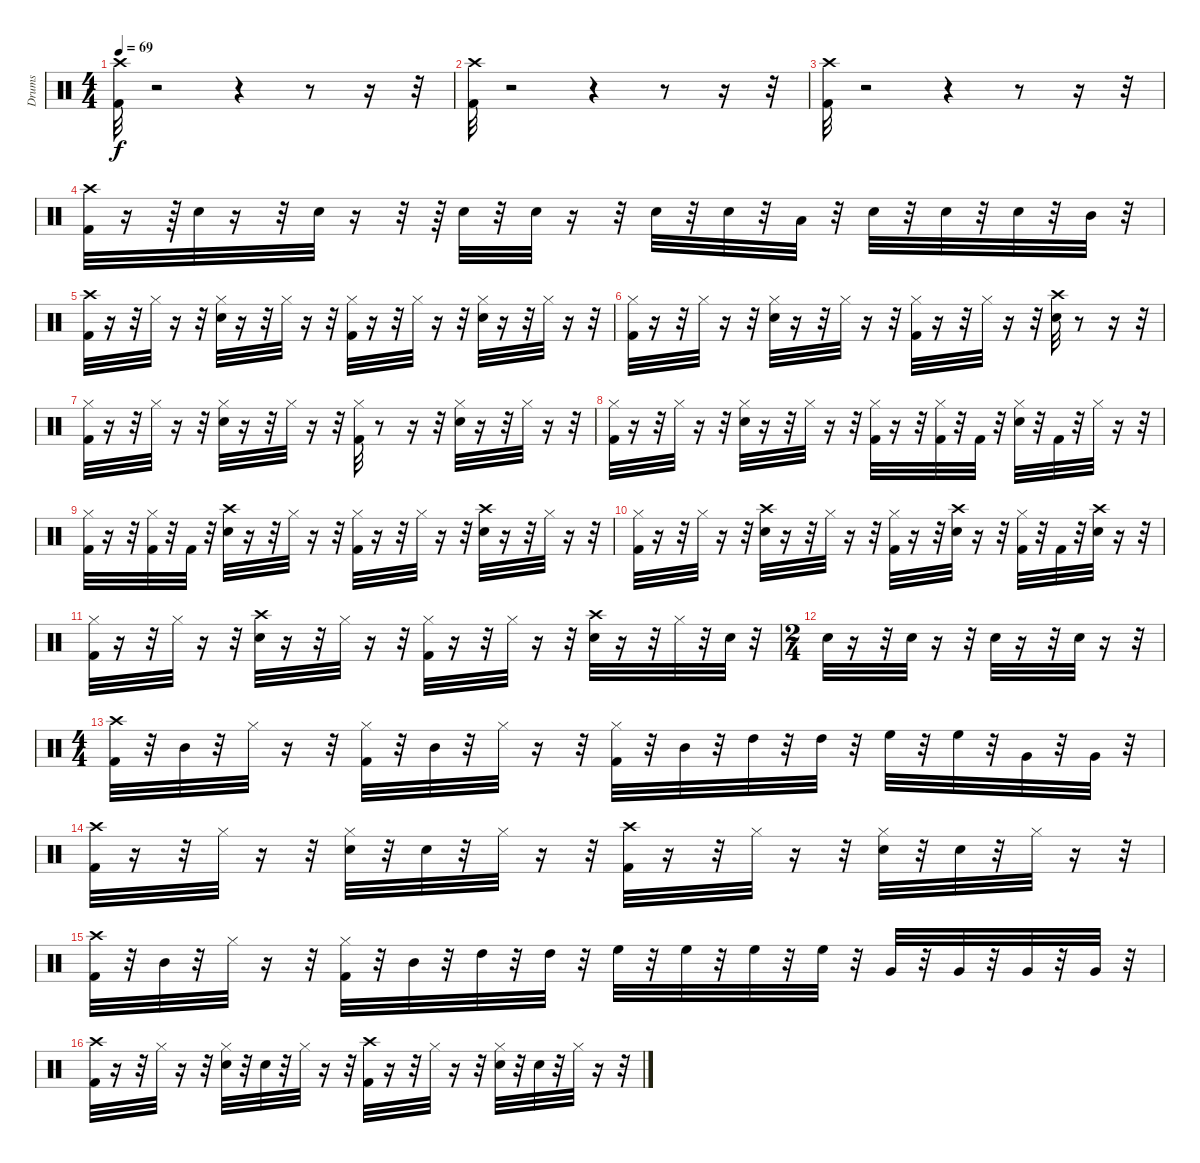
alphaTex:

\track ("Drums" "Drums") {instrument percussion}
\staff {score}
\articulation defaults
\ts (4 4)
\tempo 69
\clef neutral
\ks c
("Kick (hit) 2" "Crash high (hit)").32{dy f} r.2 r.4 r.8 r.16 r.32 |
("Kick (hit) 2" "Crash high (hit)").32 r.2 r.4 r.8 r.16 r.32 |
("Kick (hit) 2" "Crash high (hit)").32 r.2 r.4 r.8 r.16 r.32 |
("Kick (hit) 2" "Crash high (hit)").32 r.16 r.64 "Snare (hit) 2".32 r.16 r.32 "Snare (hit) 2".32 r.16 r.32 r.64 "Snare (hit) 2".32 r.32 "Snare (hit) 2".32 r.16 r.32 "Snare (hit) 2".32 r.32 "Snare (hit) 2".32 r.32 "Low Tom (hit)".32 r.32 "Snare (hit) 2".32 r.32 "Snare (hit) 2".32 r.32 "Snare (hit) 2".32 r.32 "Mid Tom (hit)".32 r.32 |
("Kick (hit) 2" "Crash high (hit)").32 r.16 r.32 "Hi-Hat (closed)".32 r.16 r.32 ("Snare (hit) 2" "Hi-Hat (closed)").32 r.16 r.32 "Hi-Hat (closed)".32 r.16 r.32 ("Hi-Hat (closed)" "Kick (hit) 2").32 r.16 r.32 "Hi-Hat (closed)".32 r.16 r.32 ("Snare (hit) 2" "Hi-Hat (closed)").32 r.16 r.32 "Hi-Hat (closed)".32 r.16 r.32 |
("Kick (hit) 2" "Hi-Hat (closed)").32 r.16 r.32 "Hi-Hat (closed)".32 r.16 r.32 ("Snare (hit) 2" "Hi-Hat (closed)").32 r.16 r.32 "Hi-Hat (closed)".32 r.16 r.32 ("Hi-Hat (closed)" "Kick (hit) 2").32 r.16 r.32 "Hi-Hat (closed)".32 r.16 r.32 ("Crash high (hit)" "Snare (hit) 2").32 r.8 r.16 r.32 |
("Kick (hit) 2" "Hi-Hat (closed)").32 r.16 r.32 "Hi-Hat (closed)".32 r.16 r.32 ("Snare (hit) 2" "Hi-Hat (closed)").32 r.16 r.32 "Hi-Hat (closed)".32 r.16 r.32 ("Kick (hit) 2" "Hi-Hat (closed)").32 r.8 r.16 r.32 ("Snare (hit) 2" "Hi-Hat (closed)").32 r.16 r.32 "Hi-Hat (closed)".32 r.16 r.32 |
("Hi-Hat (closed)" "Kick (hit) 2").32 r.16 r.32 "Hi-Hat (closed)".32 r.16 r.32 ("Snare (hit) 2" "Hi-Hat (closed)").32 r.16 r.32 "Hi-Hat (closed)".32 r.16 r.32 ("Hi-Hat (closed)" "Kick (hit) 2").32 r.16 r.32 ("Hi-Hat (closed)" "Kick (hit) 2").32 r.32 "Kick (hit) 2".32 r.32 ("Snare (hit) 2" "Hi-Hat (closed)").32 r.32 "Kick (hit) 2".32 r.32 "Hi-Hat (closed)".32 r.16 r.32 |
("Kick (hit) 2" "Hi-Hat (closed)").32 r.16 r.32 ("Kick (hit) 2" "Hi-Hat (closed)").32 r.32 "Kick (hit) 2".32 r.32 ("Crash high (hit)" "Snare (hit) 2").32 r.16 r.32 "Hi-Hat (closed)".32 r.16 r.32 ("Hi-Hat (closed)" "Kick (hit) 2").32 r.16 r.32 "Hi-Hat (closed)".32 r.16 r.32 ("Crash high (hit)" "Snare (hit) 2").32 r.16 r.32 "Hi-Hat (closed)".32 r.16 r.32 |
("Kick (hit) 2" "Hi-Hat (closed)").32 r.16 r.32 "Hi-Hat (closed)".32 r.16 r.32 ("Crash high (hit)" "Snare (hit) 2").32 r.16 r.32 "Hi-Hat (closed)".32 r.16 r.32 ("Hi-Hat (closed)" "Kick (hit) 2").32 r.16 r.32 ("Crash high (hit)" "Snare (hit) 2").32 r.16 r.32 ("Hi-Hat (closed)" "Kick (hit) 2").32 r.32 "Kick (hit) 2".32 r.32 ("Crash high (hit)" "Snare (hit) 2").32 r.16 r.32 |
("Kick (hit) 2" "Hi-Hat (closed)").32 r.16 r.32 "Hi-Hat (closed)".32 r.16 r.32 ("Crash high (hit)" "Snare (hit) 2").32 r.16 r.32 "Hi-Hat (closed)".32 r.16 r.32 ("Hi-Hat (closed)" "Kick (hit) 2").32 r.16 r.32 "Hi-Hat (closed)".32 r.16 r.32 ("Crash high (hit)" "Snare (hit) 2").32 r.16 r.32 "Hi-Hat (closed)".32 r.32 "Snare (hit) 2".32 r.32 |
\ts (2 4)
"Snare (hit) 2".32 r.16 r.32 "Snare (hit) 2".32 r.16 r.32 "Snare (hit) 2".32 r.16 r.32 "Snare (hit) 2".32 r.16 r.32 |
\ts (4 4)
("Crash high (hit)" "Kick (hit) 2").32 r.32 "Mid Tom (hit)".32 r.32 "Hi-Hat (closed)".32 r.16 r.32 ("Hi-Hat (closed)" "Kick (hit) 2").32 r.32 "Mid Tom (hit)".32 r.32 "Hi-Hat (closed)".32 r.16 r.32 ("Hi-Hat (closed)" "Kick (hit) 2").32 r.32 "Mid Tom (hit)".32 r.32 "High Tom (hit)".32 r.32 "High Tom (hit)".32 r.32 "High Floor Tom (hit)".32 r.32 "High Floor Tom (hit)".32 r.32 "Very Low Tom (hit)".32 r.32 "Very Low Tom (hit)".32 r.32 |
("Kick (hit) 2" "Crash high (hit)").32 r.16 r.32 "Hi-Hat (closed)".32 r.16 r.32 ("Snare (hit) 2" "Hi-Hat (closed)").32 r.32 "Snare (hit) 2".32 r.32 "Hi-Hat (closed)".32 r.16 r.32 ("Crash high (hit)" "Kick (hit) 2").32 r.16 r.32 "Hi-Hat (closed)".32 r.16 r.32 ("Snare (hit) 2" "Hi-Hat (closed)").32 r.32 "Snare (hit) 2".32 r.32 "Hi-Hat (closed)".32 r.16 r.32 |
("Kick (hit) 2" "Crash high (hit)").32 r.32 "Mid Tom (hit)".32 r.32 "Hi-Hat (closed)".32 r.16 r.32 ("Hi-Hat (closed)" "Kick (hit) 2").32 r.32 "Mid Tom (hit)".32 r.32 "High Tom (hit)".32 r.32 "High Tom (hit)".32 r.32 "High Floor Tom (hit)".32 r.32 "High Floor Tom (hit)".32 r.32 "High Floor Tom (hit)".32 r.32 "High Floor Tom (hit)".32 r.32 "Very Low Tom (hit)".32 r.32 "Very Low Tom (hit)".32 r.32 "Very Low Tom (hit)".32 r.32 "Very Low Tom (hit)".32 r.32 |
("Kick (hit) 2" "Crash high (hit)").32 r.16 r.32 "Hi-Hat (closed)".32 r.16 r.32 ("Snare (hit) 2" "Hi-Hat (closed)").32 r.32 "Snare (hit) 2".32 r.32 "Hi-Hat (closed)".32 r.16 r.32 ("Crash high (hit)" "Kick (hit) 2").32 r.16 r.32 "Hi-Hat (closed)".32 r.16 r.32 ("Snare (hit) 2" "Hi-Hat (closed)").32 r.32 "Snare (hit) 2".32 r.32 "Hi-Hat (closed)".32 r.16 r.32
